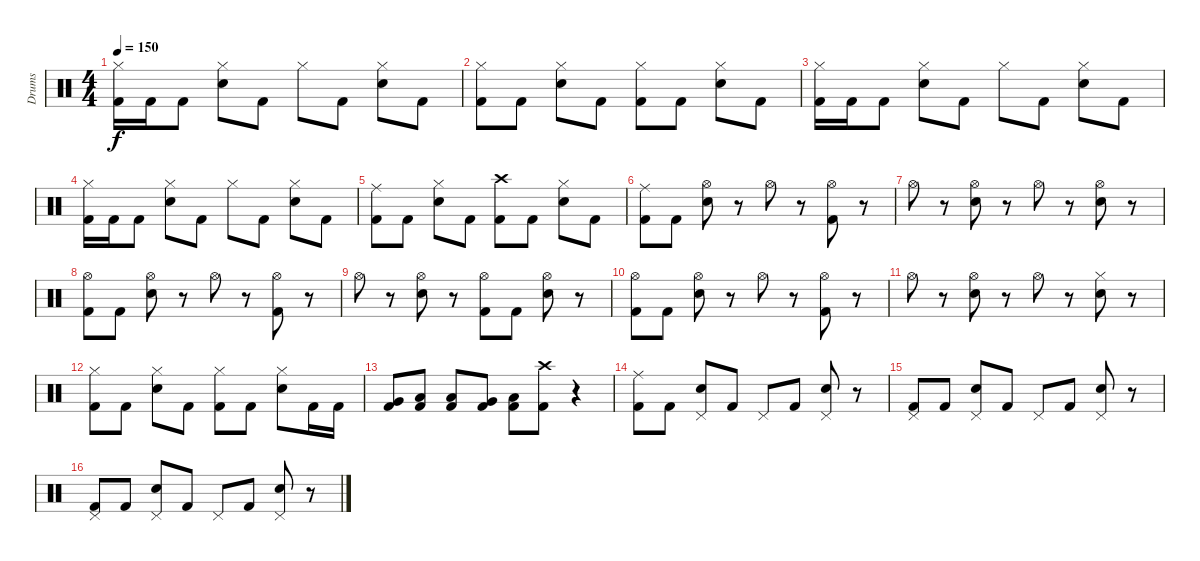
\track ("Drums" "Drums") {instrument percussion}
\staff {score}
\articulation defaults
\ts (4 4)
\tempo 150
\clef neutral
\ks c
("Hi-Hat (closed)" "Kick (hit) 2").16{dy f} "Kick (hit) 2".16 "Kick (hit) 2".8 ("Hi-Hat (closed)" "Electric Snare (hit)").8 "Kick (hit) 2".8 "Hi-Hat (closed)".8 "Kick (hit) 2".8 ("Hi-Hat (closed)" "Electric Snare (hit)").8 "Kick (hit) 2".8 |
("Hi-Hat (closed)" "Kick (hit) 2").8 "Kick (hit) 2".8 ("Hi-Hat (closed)" "Electric Snare (hit)").8 "Kick (hit) 2".8 ("Hi-Hat (closed)" "Kick (hit) 2").8 "Kick (hit) 2".8 ("Hi-Hat (closed)" "Electric Snare (hit)").8 "Kick (hit) 2".8 |
("Hi-Hat (closed)" "Kick (hit) 2").16 "Kick (hit) 2".16 "Kick (hit) 2".8 ("Hi-Hat (closed)" "Electric Snare (hit)").8 "Kick (hit) 2".8 "Hi-Hat (closed)".8 "Kick (hit) 2".8 ("Hi-Hat (closed)" "Electric Snare (hit)").8 "Kick (hit) 2".8 |
("Hi-Hat (closed)" "Kick (hit) 2").16 "Kick (hit) 2".16 "Kick (hit) 2".8 ("Hi-Hat (closed)" "Electric Snare (hit)").8 "Kick (hit) 2".8 "Hi-Hat (closed)".8 "Kick (hit) 2".8 ("Hi-Hat (closed)" "Electric Snare (hit)").8 "Kick (hit) 2".8 |
("Ride (middle)" "Kick (hit) 2").8 "Kick (hit) 2".8 ("Hi-Hat (closed)" "Electric Snare (hit)").8 "Kick (hit) 2".8 ("Crash high (hit)" "Kick (hit) 2").8 "Kick (hit) 2".8 ("Hi-Hat (closed)" "Electric Snare (hit)").8 "Kick (hit) 2".8 |
("Ride (middle)" "Kick (hit) 2").8 "Kick (hit) 2".8 ("Hi-Hat (open)" "Electric Snare (hit)").8 r.8 "Hi-Hat (open)".8 r.8 ("Hi-Hat (open)" "Kick (hit) 2").8 r.8 |
"Hi-Hat (open)".8 r.8 ("Hi-Hat (open)" "Electric Snare (hit)").8 r.8 "Hi-Hat (open)".8 r.8 ("Hi-Hat (open)" "Electric Snare (hit)").8 r.8 |
("Hi-Hat (open)" "Kick (hit) 2").8 "Kick (hit) 2".8 ("Hi-Hat (open)" "Electric Snare (hit)").8 r.8 "Hi-Hat (open)".8 r.8 ("Hi-Hat (open)" "Kick (hit) 2").8 r.8 |
"Hi-Hat (open)".8 r.8 ("Hi-Hat (open)" "Electric Snare (hit)").8 r.8 ("Hi-Hat (open)" "Kick (hit) 2").8 "Kick (hit) 2".8 ("Hi-Hat (open)" "Electric Snare (hit)").8 r.8 |
("Hi-Hat (open)" "Kick (hit) 2").8 "Kick (hit) 2".8 ("Hi-Hat (open)" "Electric Snare (hit)").8 r.8 "Hi-Hat (open)".8 r.8 ("Hi-Hat (open)" "Kick (hit) 2").8 r.8 |
"Hi-Hat (open)".8 r.8 ("Hi-Hat (open)" "Electric Snare (hit)").8 r.8 "Hi-Hat (open)".8 r.8 ("Hi-Hat (closed)" "Electric Snare (hit)").8 r.8 |
("Hi-Hat (closed)" "Kick (hit) 2").8 "Kick (hit) 2".8 ("Hi-Hat (closed)" "Electric Snare (hit)").8 "Kick (hit) 2".8 ("Hi-Hat (closed)" "Kick (hit) 2").8 "Kick (hit) 2".8 ("Hi-Hat (closed)" "Electric Snare (hit)").8 "Kick (hit) 2".16 "Kick (hit) 2".16 |
("Very Low Tom (hit)" "Kick (hit) 2").8 ("Low Floor Tom (hit)" "Kick (hit) 2").8 ("Low Floor Tom (hit)" "Kick (hit) 2").8 ("Very Low Tom (hit)" "Kick (hit) 2").8 ("Low Floor Tom (hit)" "Kick (hit) 2").8 ("Crash high (hit)" "Kick (hit) 2").8 r.4 |
("Ride (middle)" "Kick (hit) 2").8 "Kick (hit) 2".8 ("Pedal Hi-Hat (hit)" "Electric Snare (hit)").8 "Kick (hit) 2".8 "Pedal Hi-Hat (hit)".8 "Kick (hit) 2".8 ("Pedal Hi-Hat (hit)" "Electric Snare (hit)").8 r.8 |
("Pedal Hi-Hat (hit)" "Kick (hit) 2").8 "Kick (hit) 2".8 ("Pedal Hi-Hat (hit)" "Electric Snare (hit)").8 "Kick (hit) 2".8 "Pedal Hi-Hat (hit)".8 "Kick (hit) 2".8 ("Pedal Hi-Hat (hit)" "Electric Snare (hit)").8 r.8 |
("Pedal Hi-Hat (hit)" "Kick (hit) 2").8 "Kick (hit) 2".8 ("Pedal Hi-Hat (hit)" "Electric Snare (hit)").8 "Kick (hit) 2".8 "Pedal Hi-Hat (hit)".8 "Kick (hit) 2".8 ("Pedal Hi-Hat (hit)" "Electric Snare (hit)").8 r.8
